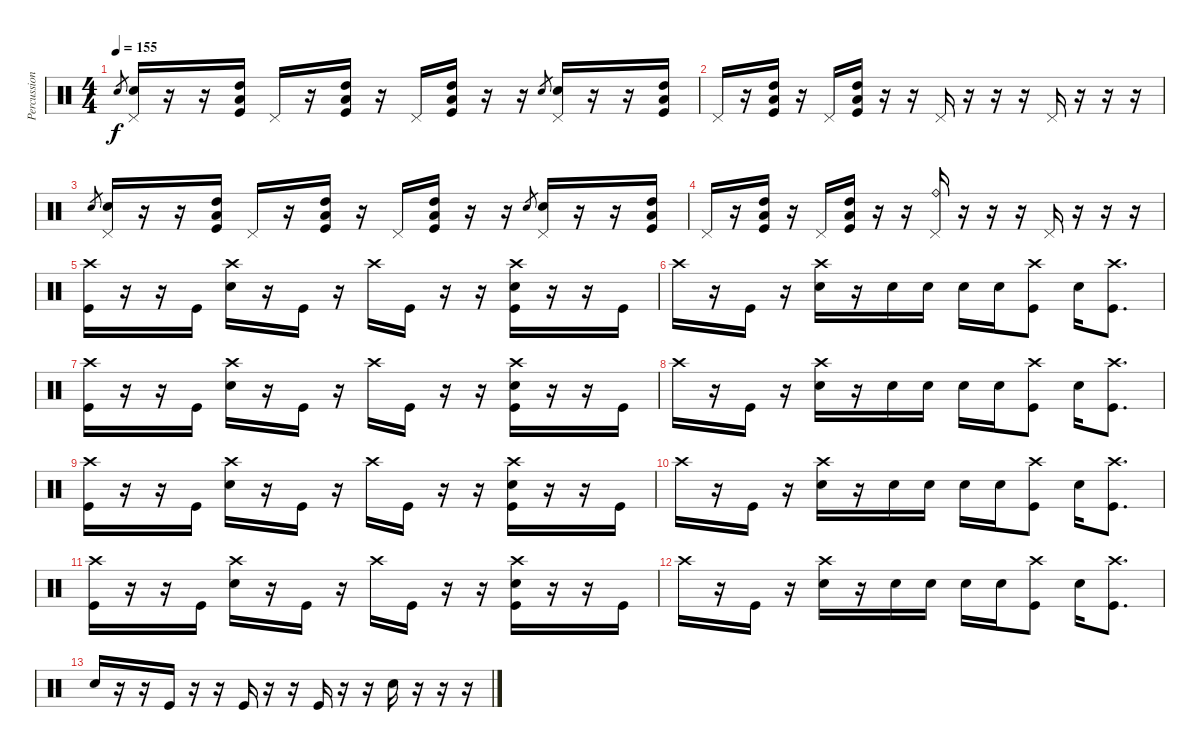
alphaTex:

\track ("Percussion" "Percussion") {instrument percussion}
\staff {score}
\articulation defaults
\ts (4 4)
\tempo 155
\clef neutral
\ks c "Snare (hit) 2".8{gr dy f}
("Snare (hit) 2" "Pedal Hi-Hat (hit)").16 r.16 r.16 ("Kick (hit)" "High Tom (hit)" "Low Floor Tom (hit)").16 "Pedal Hi-Hat (hit)".16 r.16 ("Kick (hit)" "High Tom (hit)" "Low Floor Tom (hit)").16 r.16 "Pedal Hi-Hat (hit)".16 ("Kick (hit)" "High Tom (hit)" "Low Floor Tom (hit)").16 r.16 r.16 "Snare (hit) 2".8{gr} ("Snare (hit) 2" "Pedal Hi-Hat (hit)").16 r.16 r.16 ("Kick (hit)" "High Tom (hit)" "Low Floor Tom (hit)").16 |
"Pedal Hi-Hat (hit)".16 r.16 ("Kick (hit)" "High Tom (hit)" "Low Floor Tom (hit)").16 r.16 "Pedal Hi-Hat (hit)".16 ("Kick (hit)" "High Tom (hit)" "Low Floor Tom (hit)").16 r.16 r.16 "Pedal Hi-Hat (hit)".16 r.16 r.16 r.16 "Pedal Hi-Hat (hit)".16 r.16 r.16 r.16 |
"Snare (hit) 2".8{gr} ("Snare (hit) 2" "Pedal Hi-Hat (hit)").16 r.16 r.16 ("Kick (hit)" "High Tom (hit)" "Low Floor Tom (hit)").16 "Pedal Hi-Hat (hit)".16 r.16 ("Kick (hit)" "High Tom (hit)" "Low Floor Tom (hit)").16 r.16 "Pedal Hi-Hat (hit)".16 ("Kick (hit)" "High Tom (hit)" "Low Floor Tom (hit)").16 r.16 r.16 "Snare (hit) 2".8{gr} ("Snare (hit) 2" "Pedal Hi-Hat (hit)").16 r.16 r.16 ("Kick (hit)" "High Tom (hit)" "Low Floor Tom (hit)").16 |
"Pedal Hi-Hat (hit)".16 r.16 ("Kick (hit)" "High Tom (hit)" "Low Floor Tom (hit)").16 r.16 "Pedal Hi-Hat (hit)".16 ("Kick (hit)" "High Tom (hit)" "Low Floor Tom (hit)").16 r.16 r.16 ("Ride (bell)" "Pedal Hi-Hat (hit)").16 r.16 r.16 r.16 "Pedal Hi-Hat (hit)".16 r.16 r.16 r.16 |
("Crash high (hit)" "Kick (hit)").16 r.16 r.16 "Kick (hit)".16 ("Crash high (hit)" "Snare (hit) 2").16 r.16 "Kick (hit)".16 r.16 "Crash high (hit)".16 "Kick (hit)".16 r.16 r.16 ("Crash high (hit)" "Kick (hit)" "Snare (hit) 2").16 r.16 r.16 "Kick (hit)".16 |
"Crash high (hit)".16 r.16 "Kick (hit)".16 r.16 ("Crash high (hit)" "Snare (hit) 2").16 r.16 "Snare (hit) 2".16 "Snare (hit) 2".16 "Snare (hit) 2".16 "Snare (hit) 2".16 ("Kick (hit)" "Crash high (hit)").8 "Snare (hit) 2".16 ("Kick (hit)" "Crash high (hit)").8{d} |
("Crash high (hit)" "Kick (hit)").16 r.16 r.16 "Kick (hit)".16 ("Crash high (hit)" "Snare (hit) 2").16 r.16 "Kick (hit)".16 r.16 "Crash high (hit)".16 "Kick (hit)".16 r.16 r.16 ("Crash high (hit)" "Kick (hit)" "Snare (hit) 2").16 r.16 r.16 "Kick (hit)".16 |
"Crash high (hit)".16 r.16 "Kick (hit)".16 r.16 ("Crash high (hit)" "Snare (hit) 2").16 r.16 "Snare (hit) 2".16 "Snare (hit) 2".16 "Snare (hit) 2".16 "Snare (hit) 2".16 ("Kick (hit)" "Crash high (hit)").8 "Snare (hit) 2".16 ("Kick (hit)" "Crash high (hit)").8{d} |
("Crash high (hit)" "Kick (hit)").16 r.16 r.16 "Kick (hit)".16 ("Crash high (hit)" "Snare (hit) 2").16 r.16 "Kick (hit)".16 r.16 "Crash high (hit)".16 "Kick (hit)".16 r.16 r.16 ("Crash high (hit)" "Kick (hit)" "Snare (hit) 2").16 r.16 r.16 "Kick (hit)".16 |
"Crash high (hit)".16 r.16 "Kick (hit)".16 r.16 ("Crash high (hit)" "Snare (hit) 2").16 r.16 "Snare (hit) 2".16 "Snare (hit) 2".16 "Snare (hit) 2".16 "Snare (hit) 2".16 ("Kick (hit)" "Crash high (hit)").8 "Snare (hit) 2".16 ("Kick (hit)" "Crash high (hit)").8{d} |
("Crash high (hit)" "Kick (hit)").16 r.16 r.16 "Kick (hit)".16 ("Crash high (hit)" "Snare (hit) 2").16 r.16 "Kick (hit)".16 r.16 "Crash high (hit)".16 "Kick (hit)".16 r.16 r.16 ("Crash high (hit)" "Kick (hit)" "Snare (hit) 2").16 r.16 r.16 "Kick (hit)".16 |
"Crash high (hit)".16 r.16 "Kick (hit)".16 r.16 ("Crash high (hit)" "Snare (hit) 2").16 r.16 "Snare (hit) 2".16 "Snare (hit) 2".16 "Snare (hit) 2".16 "Snare (hit) 2".16 ("Kick (hit)" "Crash high (hit)").8 "Snare (hit) 2".16 ("Kick (hit)" "Crash high (hit)").8{d} |
"Snare (hit) 2".16 r.16 r.16 "Kick (hit)".16 r.16 r.16 "Kick (hit)".16 r.16 r.16 "Kick (hit)".16 r.16 r.16 "Snare (hit) 2".16 r.16 r.16 r.16
